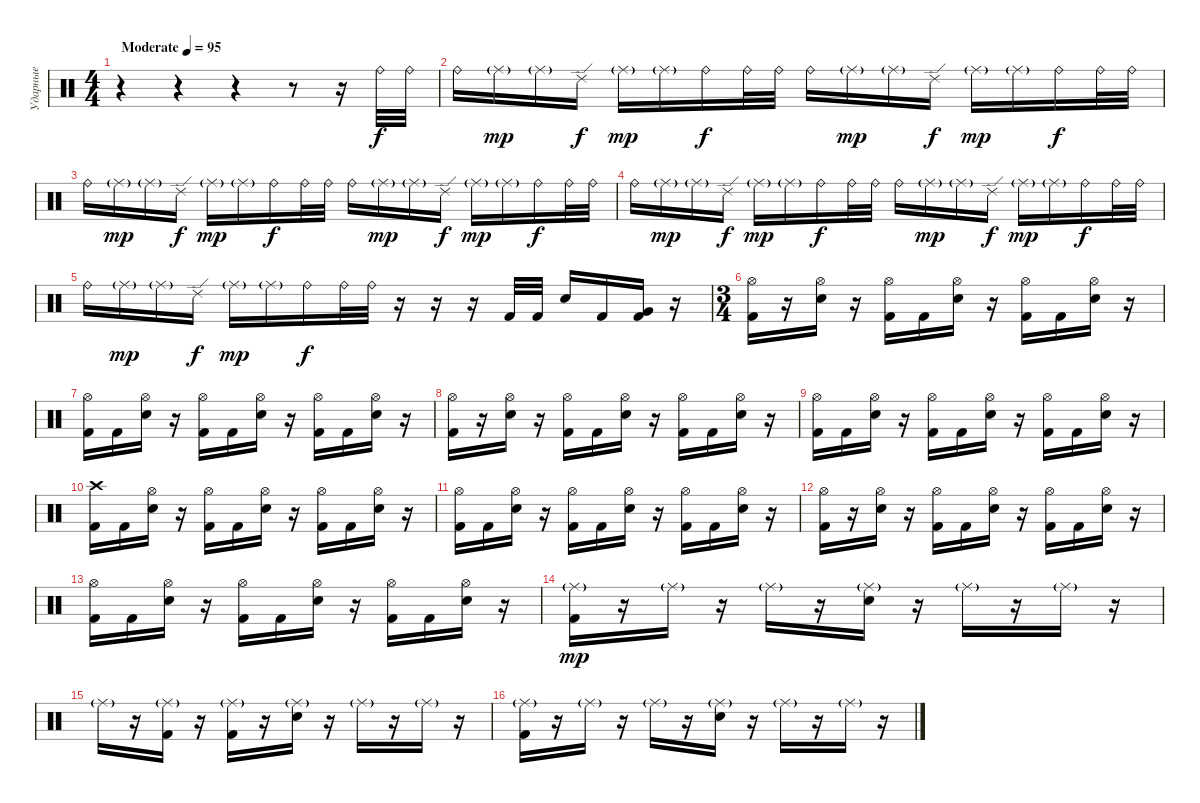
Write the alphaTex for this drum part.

\track ("Ударные" "Ударные") {instrument percussion}
\staff {score}
\articulation defaults
\ts (4 4)
\tempo (95 "Moderate")
\clef neutral
\ks c
r.4{dy f} r.4 r.4 r.8 r.16 "Ride (bell)".32 "Ride (bell)".32 |
"Ride (bell)".16 "Ride (middle)"{g}.16{dy mp} "Ride (middle)"{g}.16 "Ride (edge) 2".16{dy f} "Ride (middle)"{g}.16{dy mp} "Ride (middle)"{g}.16 "Ride (bell)".16{dy f} "Ride (bell)".32 "Ride (bell)".32 "Ride (bell)".16 "Ride (middle)"{g}.16{dy mp} "Ride (middle)"{g}.16 "Ride (edge) 2".16{dy f} "Ride (middle)"{g}.16{dy mp} "Ride (middle)"{g}.16 "Ride (bell)".16{dy f} "Ride (bell)".32 "Ride (bell)".32 |
"Ride (bell)".16 "Ride (middle)"{g}.16{dy mp} "Ride (middle)"{g}.16 "Ride (edge) 2".16{dy f} "Ride (middle)"{g}.16{dy mp} "Ride (middle)"{g}.16 "Ride (bell)".16{dy f} "Ride (bell)".32 "Ride (bell)".32 "Ride (bell)".16 "Ride (middle)"{g}.16{dy mp} "Ride (middle)"{g}.16 "Ride (edge) 2".16{dy f} "Ride (middle)"{g}.16{dy mp} "Ride (middle)"{g}.16 "Ride (bell)".16{dy f} "Ride (bell)".32 "Ride (bell)".32 |
"Ride (bell)".16 "Ride (middle)"{g}.16{dy mp} "Ride (middle)"{g}.16 "Ride (edge) 2".16{dy f} "Ride (middle)"{g}.16{dy mp} "Ride (middle)"{g}.16 "Ride (bell)".16{dy f} "Ride (bell)".32 "Ride (bell)".32 "Ride (bell)".16 "Ride (middle)"{g}.16{dy mp} "Ride (middle)"{g}.16 "Ride (edge) 2".16{dy f} "Ride (middle)"{g}.16{dy mp} "Ride (middle)"{g}.16 "Ride (bell)".16{dy f} "Ride (bell)".32 "Ride (bell)".32 |
"Ride (bell)".16 "Ride (middle)"{g}.16{dy mp} "Ride (middle)"{g}.16 "Ride (edge) 2".16{dy f} "Ride (middle)"{g}.16{dy mp} "Ride (middle)"{g}.16 "Ride (bell)".16{dy f} "Ride (bell)".32 "Ride (bell)".32 r.16 r.16 r.16 "Kick (hit) 2".32 "Kick (hit) 2".32 "Electric Snare (hit)".16 "Kick (hit) 2".16 ("Very Low Tom (hit)" "Kick (hit) 2").16 r.16 |
\ts (3 4)
("Hi-Hat (open)" "Kick (hit) 2").16 r.16 ("Hi-Hat (open)" "Electric Snare (hit)").16 r.16 ("Hi-Hat (open)" "Kick (hit) 2").16 "Kick (hit) 2".16 ("Hi-Hat (open)" "Electric Snare (hit)").16 r.16 ("Hi-Hat (open)" "Kick (hit) 2").16 "Kick (hit) 2".16 ("Hi-Hat (open)" "Electric Snare (hit)").16 r.16 |
("Hi-Hat (open)" "Kick (hit) 2").16 "Kick (hit) 2".16 ("Hi-Hat (open)" "Electric Snare (hit)").16 r.16 ("Hi-Hat (open)" "Kick (hit) 2").16 "Kick (hit) 2".16 ("Hi-Hat (open)" "Electric Snare (hit)").16 r.16 ("Hi-Hat (open)" "Kick (hit) 2").16 "Kick (hit) 2".16 ("Hi-Hat (open)" "Electric Snare (hit)").16 r.16 |
("Hi-Hat (open)" "Kick (hit) 2").16 r.16 ("Hi-Hat (open)" "Electric Snare (hit)").16 r.16 ("Hi-Hat (open)" "Kick (hit) 2").16 "Kick (hit) 2".16 ("Hi-Hat (open)" "Electric Snare (hit)").16 r.16 ("Hi-Hat (open)" "Kick (hit) 2").16 "Kick (hit) 2".16 ("Hi-Hat (open)" "Electric Snare (hit)").16 r.16 |
("Hi-Hat (open)" "Kick (hit) 2").16 "Kick (hit) 2".16 ("Hi-Hat (open)" "Electric Snare (hit)").16 r.16 ("Hi-Hat (open)" "Kick (hit) 2").16 "Kick (hit) 2".16 ("Hi-Hat (open)" "Electric Snare (hit)").16 r.16 ("Hi-Hat (open)" "Kick (hit) 2").16 "Kick (hit) 2".16 ("Hi-Hat (open)" "Electric Snare (hit)").16 r.16 |
("Crash high (hit)" "Kick (hit) 2").16 "Kick (hit) 2".16 ("Hi-Hat (open)" "Electric Snare (hit)").16 r.16 ("Hi-Hat (open)" "Kick (hit) 2").16 "Kick (hit) 2".16 ("Hi-Hat (open)" "Electric Snare (hit)").16 r.16 ("Hi-Hat (open)" "Kick (hit) 2").16 "Kick (hit) 2".16 ("Hi-Hat (open)" "Electric Snare (hit)").16 r.16 |
("Hi-Hat (open)" "Kick (hit) 2").16 "Kick (hit) 2".16 ("Hi-Hat (open)" "Electric Snare (hit)").16 r.16 ("Hi-Hat (open)" "Kick (hit) 2").16 "Kick (hit) 2".16 ("Hi-Hat (open)" "Electric Snare (hit)").16 r.16 ("Hi-Hat (open)" "Kick (hit) 2").16 "Kick (hit) 2".16 ("Hi-Hat (open)" "Electric Snare (hit)").16 r.16 |
("Hi-Hat (open)" "Kick (hit) 2").16 r.16 ("Hi-Hat (open)" "Electric Snare (hit)").16 r.16 ("Hi-Hat (open)" "Kick (hit) 2").16 "Kick (hit) 2".16 ("Hi-Hat (open)" "Electric Snare (hit)").16 r.16 ("Hi-Hat (open)" "Kick (hit) 2").16 "Kick (hit) 2".16 ("Hi-Hat (open)" "Electric Snare (hit)").16 r.16 |
("Hi-Hat (open)" "Kick (hit) 2").16 "Kick (hit) 2".16 ("Hi-Hat (open)" "Electric Snare (hit)").16 r.16 ("Hi-Hat (open)" "Kick (hit) 2").16 "Kick (hit) 2".16 ("Hi-Hat (open)" "Electric Snare (hit)").16 r.16 ("Hi-Hat (open)" "Kick (hit) 2").16 "Kick (hit) 2".16 ("Hi-Hat (open)" "Electric Snare (hit)").16 r.16 |
("Ride (middle)"{g} "Kick (hit) 2").16{dy mp} r.16 "Ride (middle)"{g}.16 r.16 "Ride (middle)"{g}.16 r.16 ("Ride (middle)"{g} "Electric Snare (hit)").16 r.16 "Ride (middle)"{g}.16 r.16 "Ride (middle)"{g}.16 r.16 |
"Ride (middle)"{g}.16 r.16 ("Ride (middle)"{g} "Kick (hit) 2").16 r.16 ("Ride (middle)"{g} "Kick (hit) 2").16 r.16 ("Ride (middle)"{g} "Electric Snare (hit)").16 r.16 "Ride (middle)"{g}.16 r.16 "Ride (middle)"{g}.16 r.16 |
("Ride (middle)"{g} "Kick (hit) 2").16 r.16 "Ride (middle)"{g}.16 r.16 "Ride (middle)"{g}.16 r.16 ("Ride (middle)"{g} "Electric Snare (hit)").16 r.16 "Ride (middle)"{g}.16 r.16 "Ride (middle)"{g}.16 r.16
